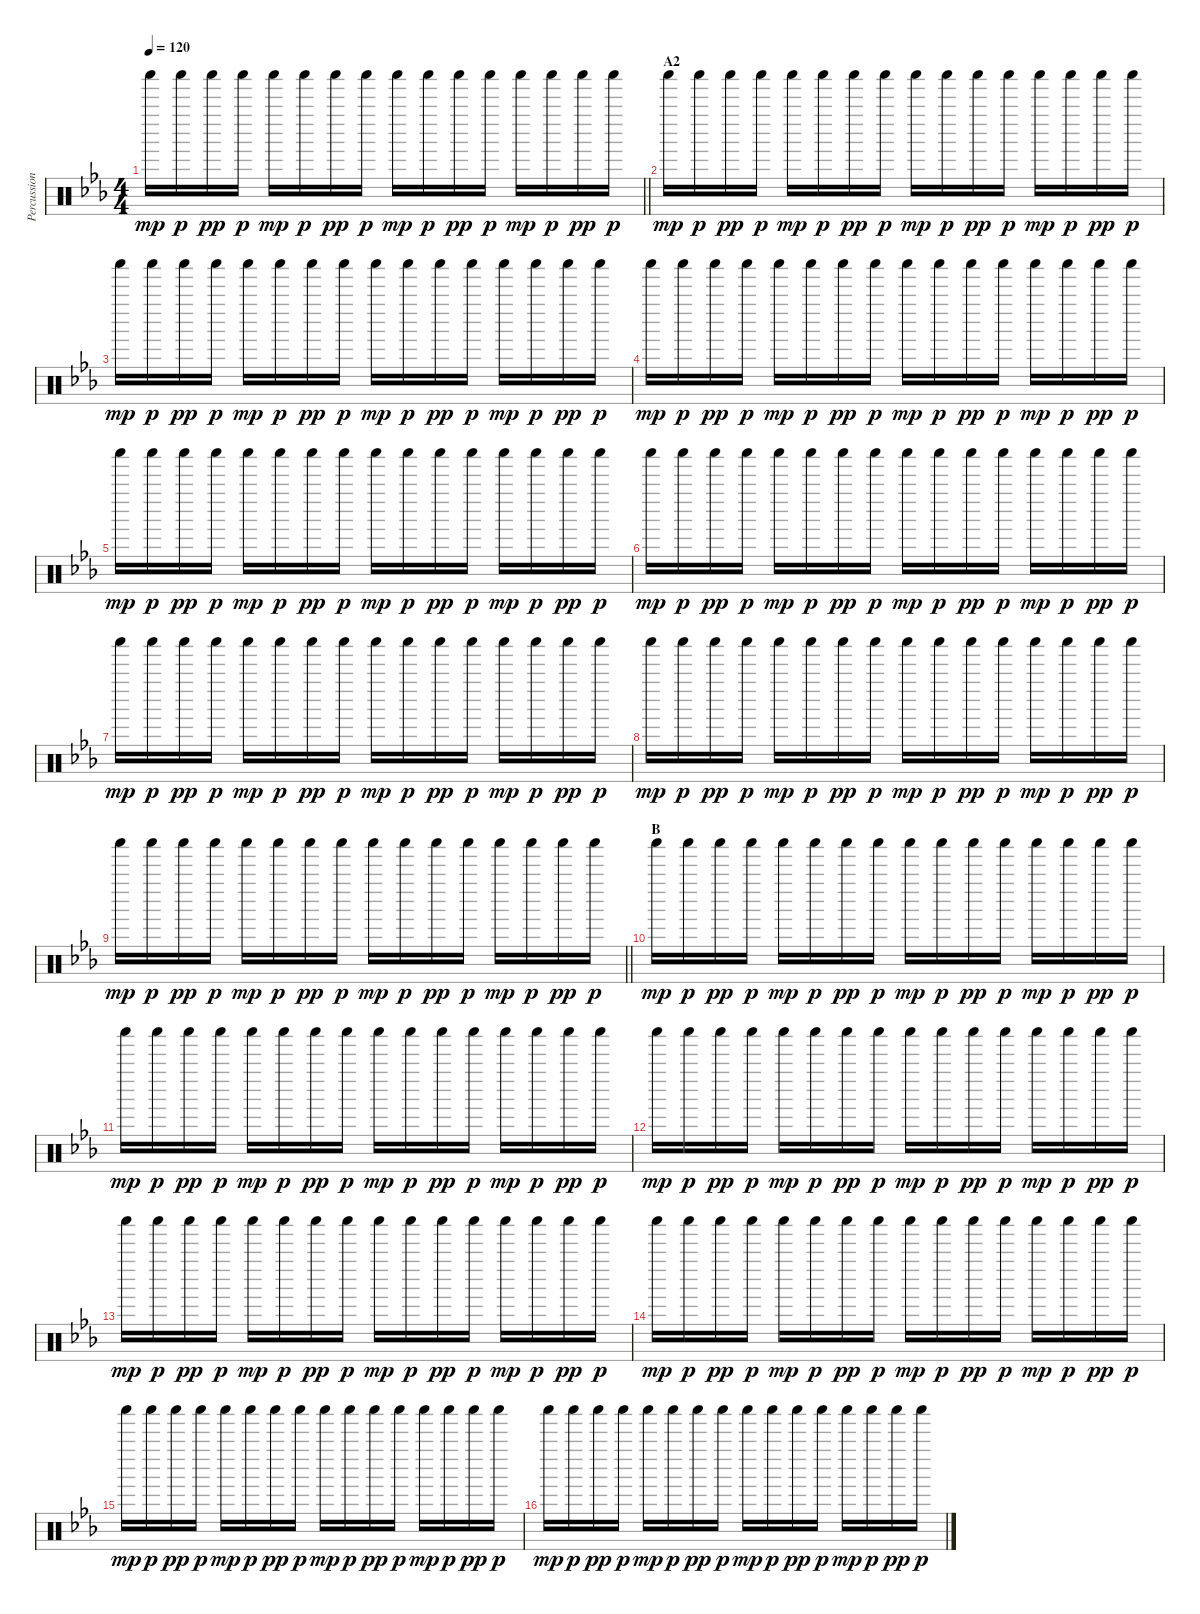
\track ("Percussion" "Percussion") {instrument percussion}
\staff {score}
\articulation defaults
\ts (4 4)
\tempo 120
\clef neutral
\barLineRight lightlight
\ks eb "Shaker (hit)".16{dy mp} "Shaker (hit)".16{dy p} "Shaker (hit)".16{dy pp} "Shaker (hit)".16{dy p} "Shaker (hit)".16{dy mp} "Shaker (hit)".16{dy p} "Shaker (hit)".16{dy pp} "Shaker (hit)".16{dy p} "Shaker (hit)".16{dy mp} "Shaker (hit)".16{dy p} "Shaker (hit)".16{dy pp} "Shaker (hit)".16{dy p} "Shaker (hit)".16{dy mp} "Shaker (hit)".16{dy p} "Shaker (hit)".16{dy pp} "Shaker (hit)".16{dy p}
|
\section ("" "A2")
"Shaker (hit)".16{dy mp} "Shaker (hit)".16{dy p} "Shaker (hit)".16{dy pp} "Shaker (hit)".16{dy p} "Shaker (hit)".16{dy mp} "Shaker (hit)".16{dy p} "Shaker (hit)".16{dy pp} "Shaker (hit)".16{dy p} "Shaker (hit)".16{dy mp} "Shaker (hit)".16{dy p} "Shaker (hit)".16{dy pp} "Shaker (hit)".16{dy p} "Shaker (hit)".16{dy mp} "Shaker (hit)".16{dy p} "Shaker (hit)".16{dy pp} "Shaker (hit)".16{dy p} |
"Shaker (hit)".16{dy mp} "Shaker (hit)".16{dy p} "Shaker (hit)".16{dy pp} "Shaker (hit)".16{dy p} "Shaker (hit)".16{dy mp} "Shaker (hit)".16{dy p} "Shaker (hit)".16{dy pp} "Shaker (hit)".16{dy p} "Shaker (hit)".16{dy mp} "Shaker (hit)".16{dy p} "Shaker (hit)".16{dy pp} "Shaker (hit)".16{dy p} "Shaker (hit)".16{dy mp} "Shaker (hit)".16{dy p} "Shaker (hit)".16{dy pp} "Shaker (hit)".16{dy p} |
"Shaker (hit)".16{dy mp} "Shaker (hit)".16{dy p} "Shaker (hit)".16{dy pp} "Shaker (hit)".16{dy p} "Shaker (hit)".16{dy mp} "Shaker (hit)".16{dy p} "Shaker (hit)".16{dy pp} "Shaker (hit)".16{dy p} "Shaker (hit)".16{dy mp} "Shaker (hit)".16{dy p} "Shaker (hit)".16{dy pp} "Shaker (hit)".16{dy p} "Shaker (hit)".16{dy mp} "Shaker (hit)".16{dy p} "Shaker (hit)".16{dy pp} "Shaker (hit)".16{dy p} |
"Shaker (hit)".16{dy mp} "Shaker (hit)".16{dy p} "Shaker (hit)".16{dy pp} "Shaker (hit)".16{dy p} "Shaker (hit)".16{dy mp} "Shaker (hit)".16{dy p} "Shaker (hit)".16{dy pp} "Shaker (hit)".16{dy p} "Shaker (hit)".16{dy mp} "Shaker (hit)".16{dy p} "Shaker (hit)".16{dy pp} "Shaker (hit)".16{dy p} "Shaker (hit)".16{dy mp} "Shaker (hit)".16{dy p} "Shaker (hit)".16{dy pp} "Shaker (hit)".16{dy p} |
"Shaker (hit)".16{dy mp} "Shaker (hit)".16{dy p} "Shaker (hit)".16{dy pp} "Shaker (hit)".16{dy p} "Shaker (hit)".16{dy mp} "Shaker (hit)".16{dy p} "Shaker (hit)".16{dy pp} "Shaker (hit)".16{dy p} "Shaker (hit)".16{dy mp} "Shaker (hit)".16{dy p} "Shaker (hit)".16{dy pp} "Shaker (hit)".16{dy p} "Shaker (hit)".16{dy mp} "Shaker (hit)".16{dy p} "Shaker (hit)".16{dy pp} "Shaker (hit)".16{dy p} |
"Shaker (hit)".16{dy mp} "Shaker (hit)".16{dy p} "Shaker (hit)".16{dy pp} "Shaker (hit)".16{dy p} "Shaker (hit)".16{dy mp} "Shaker (hit)".16{dy p} "Shaker (hit)".16{dy pp} "Shaker (hit)".16{dy p} "Shaker (hit)".16{dy mp} "Shaker (hit)".16{dy p} "Shaker (hit)".16{dy pp} "Shaker (hit)".16{dy p} "Shaker (hit)".16{dy mp} "Shaker (hit)".16{dy p} "Shaker (hit)".16{dy pp} "Shaker (hit)".16{dy p} |
"Shaker (hit)".16{dy mp} "Shaker (hit)".16{dy p} "Shaker (hit)".16{dy pp} "Shaker (hit)".16{dy p} "Shaker (hit)".16{dy mp} "Shaker (hit)".16{dy p} "Shaker (hit)".16{dy pp} "Shaker (hit)".16{dy p} "Shaker (hit)".16{dy mp} "Shaker (hit)".16{dy p} "Shaker (hit)".16{dy pp} "Shaker (hit)".16{dy p} "Shaker (hit)".16{dy mp} "Shaker (hit)".16{dy p} "Shaker (hit)".16{dy pp} "Shaker (hit)".16{dy p} |
\barLineRight lightlight "Shaker (hit)".16{dy mp} "Shaker (hit)".16{dy p} "Shaker (hit)".16{dy pp} "Shaker (hit)".16{dy p} "Shaker (hit)".16{dy mp} "Shaker (hit)".16{dy p} "Shaker (hit)".16{dy pp} "Shaker (hit)".16{dy p} "Shaker (hit)".16{dy mp} "Shaker (hit)".16{dy p} "Shaker (hit)".16{dy pp} "Shaker (hit)".16{dy p} "Shaker (hit)".16{dy mp} "Shaker (hit)".16{dy p} "Shaker (hit)".16{dy pp} "Shaker (hit)".16{dy p}
|
\section ("" "B")
"Shaker (hit)".16{dy mp} "Shaker (hit)".16{dy p} "Shaker (hit)".16{dy pp} "Shaker (hit)".16{dy p} "Shaker (hit)".16{dy mp} "Shaker (hit)".16{dy p} "Shaker (hit)".16{dy pp} "Shaker (hit)".16{dy p} "Shaker (hit)".16{dy mp} "Shaker (hit)".16{dy p} "Shaker (hit)".16{dy pp} "Shaker (hit)".16{dy p} "Shaker (hit)".16{dy mp} "Shaker (hit)".16{dy p} "Shaker (hit)".16{dy pp} "Shaker (hit)".16{dy p} |
"Shaker (hit)".16{dy mp} "Shaker (hit)".16{dy p} "Shaker (hit)".16{dy pp} "Shaker (hit)".16{dy p} "Shaker (hit)".16{dy mp} "Shaker (hit)".16{dy p} "Shaker (hit)".16{dy pp} "Shaker (hit)".16{dy p} "Shaker (hit)".16{dy mp} "Shaker (hit)".16{dy p} "Shaker (hit)".16{dy pp} "Shaker (hit)".16{dy p} "Shaker (hit)".16{dy mp} "Shaker (hit)".16{dy p} "Shaker (hit)".16{dy pp} "Shaker (hit)".16{dy p} |
"Shaker (hit)".16{dy mp} "Shaker (hit)".16{dy p} "Shaker (hit)".16{dy pp} "Shaker (hit)".16{dy p} "Shaker (hit)".16{dy mp} "Shaker (hit)".16{dy p} "Shaker (hit)".16{dy pp} "Shaker (hit)".16{dy p} "Shaker (hit)".16{dy mp} "Shaker (hit)".16{dy p} "Shaker (hit)".16{dy pp} "Shaker (hit)".16{dy p} "Shaker (hit)".16{dy mp} "Shaker (hit)".16{dy p} "Shaker (hit)".16{dy pp} "Shaker (hit)".16{dy p} |
"Shaker (hit)".16{dy mp} "Shaker (hit)".16{dy p} "Shaker (hit)".16{dy pp} "Shaker (hit)".16{dy p} "Shaker (hit)".16{dy mp} "Shaker (hit)".16{dy p} "Shaker (hit)".16{dy pp} "Shaker (hit)".16{dy p} "Shaker (hit)".16{dy mp} "Shaker (hit)".16{dy p} "Shaker (hit)".16{dy pp} "Shaker (hit)".16{dy p} "Shaker (hit)".16{dy mp} "Shaker (hit)".16{dy p} "Shaker (hit)".16{dy pp} "Shaker (hit)".16{dy p} |
"Shaker (hit)".16{dy mp} "Shaker (hit)".16{dy p} "Shaker (hit)".16{dy pp} "Shaker (hit)".16{dy p} "Shaker (hit)".16{dy mp} "Shaker (hit)".16{dy p} "Shaker (hit)".16{dy pp} "Shaker (hit)".16{dy p} "Shaker (hit)".16{dy mp} "Shaker (hit)".16{dy p} "Shaker (hit)".16{dy pp} "Shaker (hit)".16{dy p} "Shaker (hit)".16{dy mp} "Shaker (hit)".16{dy p} "Shaker (hit)".16{dy pp} "Shaker (hit)".16{dy p} |
"Shaker (hit)".16{dy mp} "Shaker (hit)".16{dy p} "Shaker (hit)".16{dy pp} "Shaker (hit)".16{dy p} "Shaker (hit)".16{dy mp} "Shaker (hit)".16{dy p} "Shaker (hit)".16{dy pp} "Shaker (hit)".16{dy p} "Shaker (hit)".16{dy mp} "Shaker (hit)".16{dy p} "Shaker (hit)".16{dy pp} "Shaker (hit)".16{dy p} "Shaker (hit)".16{dy mp} "Shaker (hit)".16{dy p} "Shaker (hit)".16{dy pp} "Shaker (hit)".16{dy p} |
"Shaker (hit)".16{dy mp} "Shaker (hit)".16{dy p} "Shaker (hit)".16{dy pp} "Shaker (hit)".16{dy p} "Shaker (hit)".16{dy mp} "Shaker (hit)".16{dy p} "Shaker (hit)".16{dy pp} "Shaker (hit)".16{dy p} "Shaker (hit)".16{dy mp} "Shaker (hit)".16{dy p} "Shaker (hit)".16{dy pp} "Shaker (hit)".16{dy p} "Shaker (hit)".16{dy mp} "Shaker (hit)".16{dy p} "Shaker (hit)".16{dy pp} "Shaker (hit)".16{dy p}
